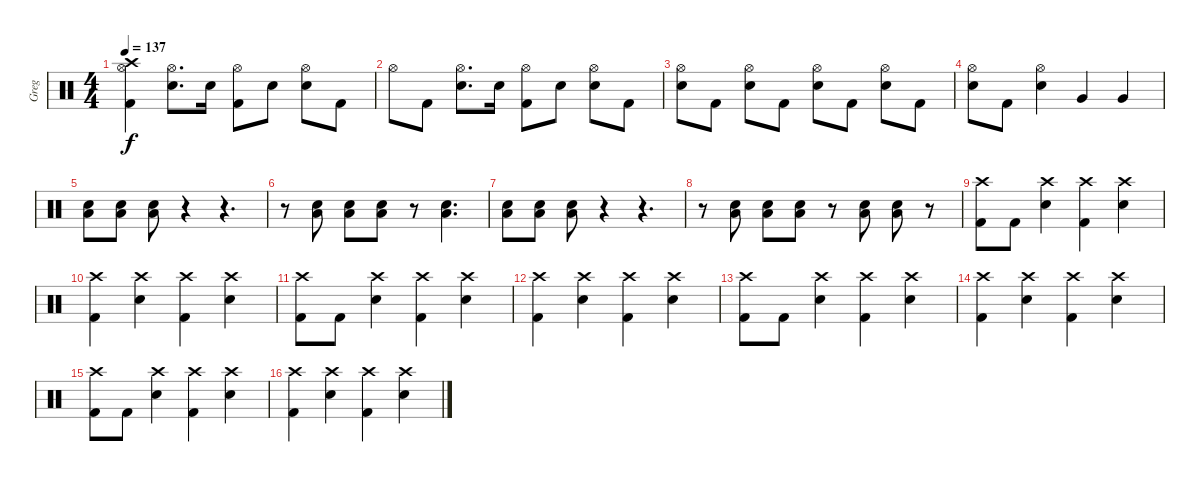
\track ("Greg" "Greg") {instrument percussion}
\staff {score}
\articulation defaults
\ts (4 4)
\tempo 137
\clef neutral
\ks c
("Crash high (hit)" "Hi-Hat (open)" "Kick (hit) 2").4{dy f} ("Hi-Hat (open)" "Electric Snare (hit)").8{d} "Electric Snare (hit)".16 ("Hi-Hat (open)" "Kick (hit) 2").8 "Electric Snare (hit)".8 ("Hi-Hat (open)" "Electric Snare (hit)").8 "Kick (hit) 2".8 |
"Hi-Hat (open)".8 "Kick (hit) 2".8 ("Hi-Hat (open)" "Electric Snare (hit)").8{d} "Electric Snare (hit)".16 ("Hi-Hat (open)" "Kick (hit) 2").8 "Electric Snare (hit)".8 ("Hi-Hat (open)" "Electric Snare (hit)").8 "Kick (hit) 2".8 |
("Hi-Hat (open)" "Electric Snare (hit)").8 "Kick (hit) 2".8 ("Hi-Hat (open)" "Electric Snare (hit)").8 "Kick (hit) 2".8 ("Hi-Hat (open)" "Electric Snare (hit)").8 "Kick (hit) 2".8 ("Hi-Hat (open)" "Electric Snare (hit)").8 "Kick (hit) 2".8 |
("Hi-Hat (open)" "Electric Snare (hit)").8 "Kick (hit) 2".8 ("Hi-Hat (open)" "Electric Snare (hit)").4 "Very Low Tom (hit)".4 "Very Low Tom (hit)".4 |
("Electric Snare (hit)" "Low Floor Tom (hit)").8 ("Electric Snare (hit)" "Low Floor Tom (hit)").8 ("Electric Snare (hit)" "Low Floor Tom (hit)").8 r.4 r.4{d} |
r.8 ("Electric Snare (hit)" "Low Floor Tom (hit)").8 ("Electric Snare (hit)" "Low Floor Tom (hit)").8 ("Electric Snare (hit)" "Low Floor Tom (hit)").8 r.8 ("Electric Snare (hit)" "Low Floor Tom (hit)").4{d} |
("Electric Snare (hit)" "Low Floor Tom (hit)").8 ("Electric Snare (hit)" "Low Floor Tom (hit)").8 ("Electric Snare (hit)" "Low Floor Tom (hit)").8 r.4 r.4{d} |
r.8 ("Electric Snare (hit)" "Low Floor Tom (hit)").8 ("Electric Snare (hit)" "Low Floor Tom (hit)").8 ("Electric Snare (hit)" "Low Floor Tom (hit)").8 r.8 ("Electric Snare (hit)" "Low Floor Tom (hit)").8 ("Electric Snare (hit)" "Low Floor Tom (hit)").8 r.8 |
("Crash high (hit)" "Kick (hit) 2").8 "Kick (hit) 2".8 ("Crash high (hit)" "Electric Snare (hit)").4 ("Crash high (hit)" "Kick (hit) 2").4 ("Crash high (hit)" "Electric Snare (hit)").4 |
("Crash high (hit)" "Kick (hit) 2").4 ("Crash high (hit)" "Electric Snare (hit)").4 ("Crash high (hit)" "Kick (hit) 2").4 ("Crash high (hit)" "Electric Snare (hit)").4 |
("Crash high (hit)" "Kick (hit) 2").8 "Kick (hit) 2".8 ("Crash high (hit)" "Electric Snare (hit)").4 ("Crash high (hit)" "Kick (hit) 2").4 ("Crash high (hit)" "Electric Snare (hit)").4 |
("Crash high (hit)" "Kick (hit) 2").4 ("Crash high (hit)" "Electric Snare (hit)").4 ("Crash high (hit)" "Kick (hit) 2").4 ("Crash high (hit)" "Electric Snare (hit)").4 |
("Crash high (hit)" "Kick (hit) 2").8 "Kick (hit) 2".8 ("Crash high (hit)" "Electric Snare (hit)").4 ("Crash high (hit)" "Kick (hit) 2").4 ("Crash high (hit)" "Electric Snare (hit)").4 |
("Crash high (hit)" "Kick (hit) 2").4 ("Crash high (hit)" "Electric Snare (hit)").4 ("Crash high (hit)" "Kick (hit) 2").4 ("Crash high (hit)" "Electric Snare (hit)").4 |
("Crash high (hit)" "Kick (hit) 2").8 "Kick (hit) 2".8 ("Crash high (hit)" "Electric Snare (hit)").4 ("Crash high (hit)" "Kick (hit) 2").4 ("Crash high (hit)" "Electric Snare (hit)").4 |
("Crash high (hit)" "Kick (hit) 2").4 ("Crash high (hit)" "Electric Snare (hit)").4 ("Crash high (hit)" "Kick (hit) 2").4 ("Crash high (hit)" "Electric Snare (hit)").4
